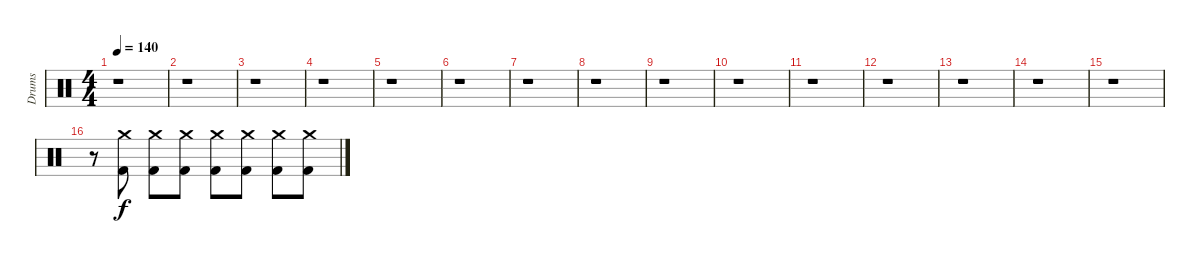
\track ("Drums" "Drums") {instrument percussion}
\staff {score}
\articulation defaults
\ts (4 4)
\tempo 140
\clef neutral
\ks c
r.1{dy f} |
r.1 |
r.1 |
r.1 |
r.1 |
r.1 |
r.1 |
r.1 |
r.1 |
r.1 |
r.1 |
r.1 |
r.1 |
r.1 |
r.1 |
r.8 ("Crash medium (hit)" "Kick (hit) 2").8 ("Crash medium (hit)" "Kick (hit) 2").8 ("Crash medium (hit)" "Kick (hit) 2").8 ("Crash medium (hit)" "Kick (hit) 2").8 ("Crash medium (hit)" "Kick (hit) 2").8 ("Kick (hit) 2" "Crash medium (hit)").8 ("Crash medium (hit)" "Kick (hit) 2").8
